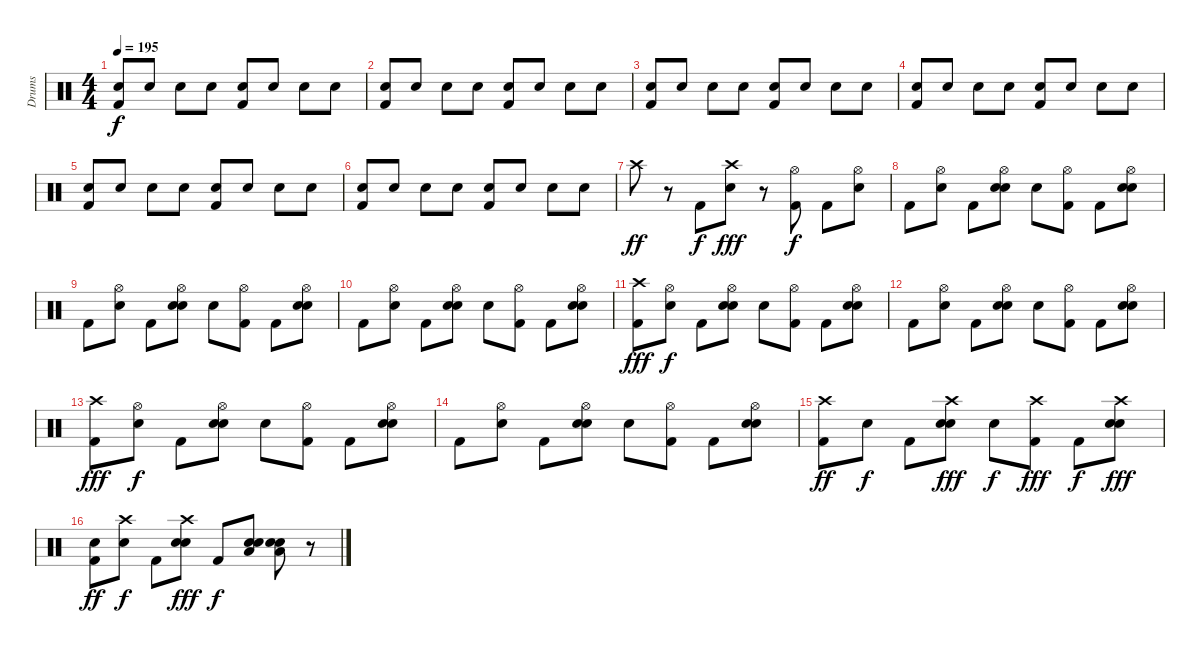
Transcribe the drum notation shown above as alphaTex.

\track ("Drums" "Drums") {instrument percussion}
\staff {score}
\articulation defaults
\ts (4 4)
\tempo 195
\clef neutral
\ks c
("Snare (hit) 2" "Kick (hit) 2").8{dy f} "Snare (hit) 2".8 "Snare (hit) 2".8 "Snare (hit) 2".8 ("Snare (hit) 2" "Kick (hit) 2").8 "Snare (hit) 2".8 "Snare (hit) 2".8 "Snare (hit) 2".8 |
("Snare (hit) 2" "Kick (hit) 2").8 "Snare (hit) 2".8 "Snare (hit) 2".8 "Snare (hit) 2".8 ("Snare (hit) 2" "Kick (hit) 2").8 "Snare (hit) 2".8 "Snare (hit) 2".8 "Snare (hit) 2".8 |
("Snare (hit) 2" "Kick (hit) 2").8 "Snare (hit) 2".8 "Snare (hit) 2".8 "Snare (hit) 2".8 ("Snare (hit) 2" "Kick (hit) 2").8 "Snare (hit) 2".8 "Snare (hit) 2".8 "Snare (hit) 2".8 |
("Snare (hit) 2" "Kick (hit) 2").8 "Snare (hit) 2".8 "Snare (hit) 2".8 "Snare (hit) 2".8 ("Snare (hit) 2" "Kick (hit) 2").8 "Snare (hit) 2".8 "Snare (hit) 2".8 "Snare (hit) 2".8 |
("Snare (hit) 2" "Kick (hit) 2").8 "Snare (hit) 2".8 "Snare (hit) 2".8 "Snare (hit) 2".8 ("Snare (hit) 2" "Kick (hit) 2").8 "Snare (hit) 2".8 "Snare (hit) 2".8 "Snare (hit) 2".8 |
("Snare (hit) 2" "Kick (hit) 2").8 "Snare (hit) 2".8 "Snare (hit) 2".8 "Snare (hit) 2".8 ("Snare (hit) 2" "Kick (hit) 2").8 "Snare (hit) 2".8 "Snare (hit) 2".8 "Snare (hit) 2".8 |
"Crash high (hit)".8{dy ff} r.8 "Kick (hit) 2".8{dy f} ("Crash high (hit)" "Snare (hit) 2").8{dy fff} r.8 ("Hi-Hat (open)" "Kick (hit) 2").8{dy f} "Kick (hit) 2".8 ("Hi-Hat (open)" "Snare (hit) 2").8 |
"Kick (hit) 2".8 ("Hi-Hat (open)" "Snare (hit)").8 "Kick (hit) 2".8 ("Hi-Hat (open)" "Snare (hit) 2" "Snare (hit)").8 "Snare (hit)".8 ("Hi-Hat (open)" "Kick (hit) 2").8 "Kick (hit) 2".8 ("Hi-Hat (open)" "Snare (hit) 2" "Snare (hit)").8 |
"Kick (hit) 2".8 ("Hi-Hat (open)" "Snare (hit)").8 "Kick (hit) 2".8 ("Hi-Hat (open)" "Snare (hit) 2" "Snare (hit)").8 "Snare (hit)".8 ("Hi-Hat (open)" "Kick (hit) 2").8 "Kick (hit) 2".8 ("Hi-Hat (open)" "Snare (hit) 2" "Snare (hit)").8 |
"Kick (hit) 2".8 ("Hi-Hat (open)" "Snare (hit)").8 "Kick (hit) 2".8 ("Hi-Hat (open)" "Snare (hit) 2" "Snare (hit)").8 "Snare (hit)".8 ("Hi-Hat (open)" "Kick (hit) 2").8 "Kick (hit) 2".8 ("Hi-Hat (open)" "Snare (hit) 2" "Snare (hit)").8 |
("Crash high (hit)" "Kick (hit) 2").8{dy fff} ("Hi-Hat (open)" "Snare (hit)").8{dy f} "Kick (hit) 2".8 ("Hi-Hat (open)" "Snare (hit) 2" "Snare (hit)").8 "Snare (hit)".8 ("Hi-Hat (open)" "Kick (hit) 2").8 "Kick (hit) 2".8 ("Hi-Hat (open)" "Snare (hit) 2" "Snare (hit)").8 |
"Kick (hit) 2".8 ("Hi-Hat (open)" "Snare (hit)").8 "Kick (hit) 2".8 ("Hi-Hat (open)" "Snare (hit) 2" "Snare (hit)").8 "Snare (hit)".8 ("Hi-Hat (open)" "Kick (hit) 2").8 "Kick (hit) 2".8 ("Hi-Hat (open)" "Snare (hit) 2" "Snare (hit)").8 |
("Crash high (hit)" "Kick (hit) 2").8{dy fff} ("Hi-Hat (open)" "Snare (hit)").8{dy f} "Kick (hit) 2".8 ("Hi-Hat (open)" "Snare (hit) 2" "Snare (hit)").8 "Snare (hit)".8 ("Hi-Hat (open)" "Kick (hit) 2").8 "Kick (hit) 2".8 ("Hi-Hat (open)" "Snare (hit) 2" "Snare (hit)").8 |
"Kick (hit) 2".8 ("Hi-Hat (open)" "Snare (hit)").8 "Kick (hit) 2".8 ("Hi-Hat (open)" "Snare (hit) 2" "Snare (hit)").8 "Snare (hit)".8 ("Hi-Hat (open)" "Kick (hit) 2").8 "Kick (hit) 2".8 ("Hi-Hat (open)" "Snare (hit) 2" "Snare (hit)").8 |
("Crash high (hit)" "Kick (hit) 2").8{dy ff} "Snare (hit)".8{dy f} "Kick (hit) 2".8 ("Crash high (hit)" "Snare (hit) 2" "Snare (hit)").8{dy fff} "Snare (hit)".8{dy f} ("Crash high (hit)" "Kick (hit) 2").8{dy fff} "Kick (hit) 2".8{dy f} ("Crash high (hit)" "Snare (hit) 2" "Snare (hit)").8{dy fff} |
("Snare (hit)" "Kick (hit) 2").8{dy ff} ("Crash high (hit)" "Snare (hit)").8{dy f} "Kick (hit) 2".8 ("Crash high (hit)" "Snare (hit) 2" "Snare (hit)").8{dy fff} "Kick (hit) 2".8{dy f} ("Low Floor Tom (hit)" "Snare (hit) 2" "Snare (hit)").8 ("Low Floor Tom (hit)" "Snare (hit) 2" "Snare (hit)").8 r.8
